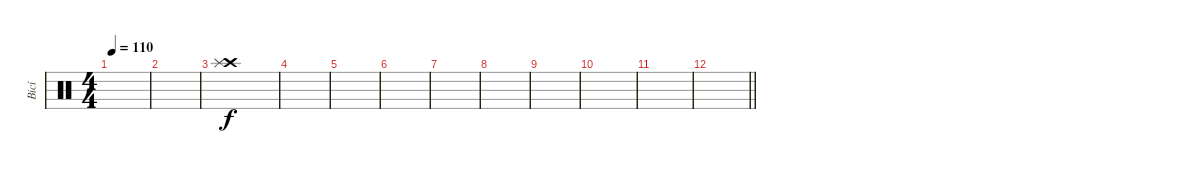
\track ("Bicí" "Bicí") {instrument percussion}
\staff {score}
\articulation defaults
\ts (4 4)
\tempo 110
\clef neutral
\ks c
|
|
("Crash high (hit)" "Splash (hit)").1{volume 9} |
|
|
|
|
|
|
|
|
\barLineRight lightlight
